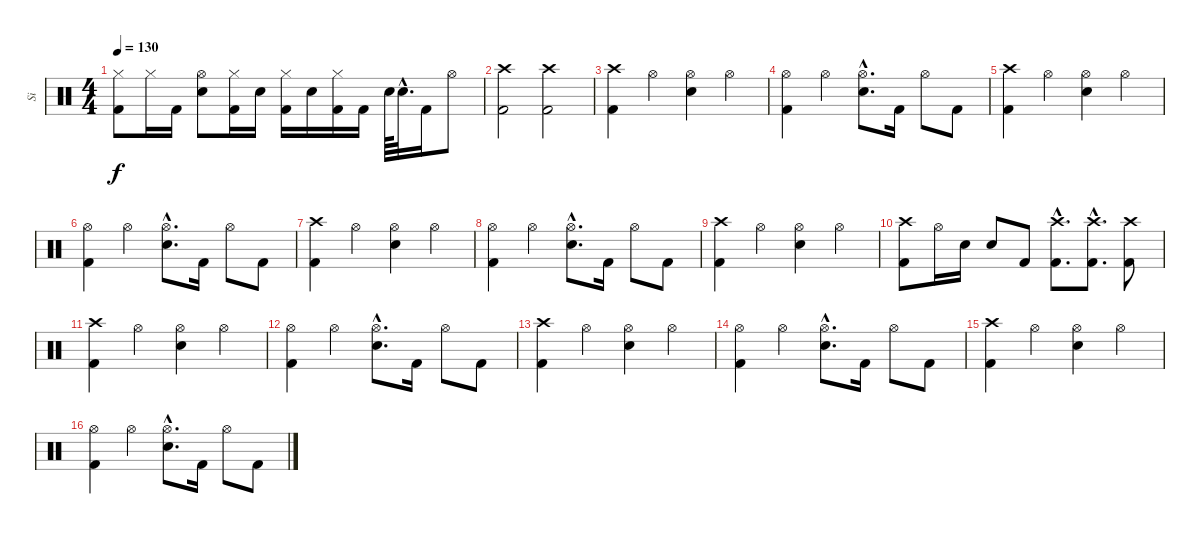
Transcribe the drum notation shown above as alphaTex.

\track ("Si" "Si") {instrument percussion}
\staff {score}
\articulation defaults
\ts (4 4)
\tempo 130
\clef neutral
\ks c
("Hi-Hat (closed)" "Kick (hit) 2").8{dy f} "Hi-Hat (closed)".16 "Kick (hit) 2".16 ("Hi-Hat (open)" "Electric Snare (hit)").8 ("Hi-Hat (closed)" "Kick (hit) 2").16 "Electric Snare (hit)".16 ("Hi-Hat (closed)" "Kick (hit) 2").16 "Electric Snare (hit)".16 ("Hi-Hat (closed)" "Kick (hit) 2").16 "Kick (hit) 2".16 "Electric Snare (hit)".64 "Electric Snare (hit)"{hac}.32{d} "Kick (hit) 2".16 "Hi-Hat (open)".8 |
("Crash high (hit)" "Kick (hit) 2").2 ("Crash high (hit)" "Kick (hit) 2").2 |
("Crash high (hit)" "Kick (hit) 2").4 "Hi-Hat (open)".4 ("Hi-Hat (open)" "Electric Snare (hit)").4 "Hi-Hat (open)".4 |
("Hi-Hat (open)" "Kick (hit) 2").4 "Hi-Hat (open)".4 ("Hi-Hat (open)"{hac} "Electric Snare (hit)"{hac}).8{d} "Kick (hit) 2".16 "Hi-Hat (open)".8 "Kick (hit) 2".8 |
("Crash high (hit)" "Kick (hit) 2").4 "Hi-Hat (open)".4 ("Hi-Hat (open)" "Electric Snare (hit)").4 "Hi-Hat (open)".4 |
("Hi-Hat (open)" "Kick (hit) 2").4 "Hi-Hat (open)".4 ("Hi-Hat (open)"{hac} "Electric Snare (hit)"{hac}).8{d} "Kick (hit) 2".16 "Hi-Hat (open)".8 "Kick (hit) 2".8 |
("Crash high (hit)" "Kick (hit) 2").4 "Hi-Hat (open)".4 ("Hi-Hat (open)" "Electric Snare (hit)").4 "Hi-Hat (open)".4 |
("Hi-Hat (open)" "Kick (hit) 2").4 "Hi-Hat (open)".4 ("Hi-Hat (open)"{hac} "Electric Snare (hit)"{hac}).8{d} "Kick (hit) 2".16 "Hi-Hat (open)".8 "Kick (hit) 2".8 |
("Crash high (hit)" "Kick (hit) 2").4 "Hi-Hat (open)".4 ("Hi-Hat (open)" "Electric Snare (hit)").4 "Hi-Hat (open)".4 |
("Crash high (hit)" "Kick (hit) 2").8 "Hi-Hat (open)".16 "Electric Snare (hit)".16 "Electric Snare (hit)".8 "Kick (hit) 2".8 ("Crash high (hit)"{hac} "Kick (hit) 2"{hac}).8{d} ("Crash high (hit)"{hac} "Kick (hit) 2"{hac}).8{d} ("Crash high (hit)" "Kick (hit) 2").8 |
("Crash high (hit)" "Kick (hit) 2").4 "Hi-Hat (open)".4 ("Hi-Hat (open)" "Electric Snare (hit)").4 "Hi-Hat (open)".4 |
("Hi-Hat (open)" "Kick (hit) 2").4 "Hi-Hat (open)".4 ("Hi-Hat (open)"{hac} "Electric Snare (hit)"{hac}).8{d} "Kick (hit) 2".16 "Hi-Hat (open)".8 "Kick (hit) 2".8 |
("Crash high (hit)" "Kick (hit) 2").4 "Hi-Hat (open)".4 ("Hi-Hat (open)" "Electric Snare (hit)").4 "Hi-Hat (open)".4 |
("Hi-Hat (open)" "Kick (hit) 2").4 "Hi-Hat (open)".4 ("Hi-Hat (open)"{hac} "Electric Snare (hit)"{hac}).8{d} "Kick (hit) 2".16 "Hi-Hat (open)".8 "Kick (hit) 2".8 |
("Crash high (hit)" "Kick (hit) 2").4 "Hi-Hat (open)".4 ("Hi-Hat (open)" "Electric Snare (hit)").4 "Hi-Hat (open)".4 |
("Hi-Hat (open)" "Kick (hit) 2").4 "Hi-Hat (open)".4 ("Hi-Hat (open)"{hac} "Electric Snare (hit)"{hac}).8{d} "Kick (hit) 2".16 "Hi-Hat (open)".8 "Kick (hit) 2".8
